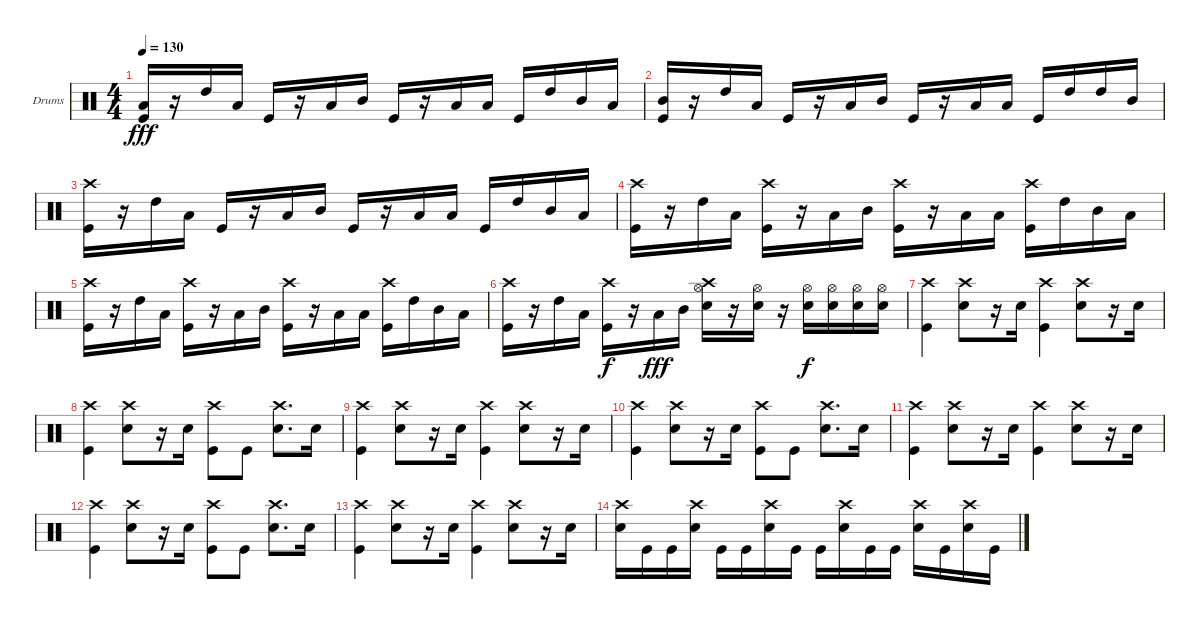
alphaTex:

\bracketExtendMode groupsimilarinstruments
\firstSystemTrackNameOrientation horizontal
\otherSystemsTrackNameOrientation horizontal
\track ("Drumkit" "Drums") {instrument percussion}
\staff {score}
\articulation defaults
\ts (4 4)
\tempo 130
\clef neutral
\ks c
("Low Tom (hit)" "Kick (hit)").16{dy fff} r.16 "High Tom (hit)".16 "Low Tom (hit)".16 "Kick (hit)".16 r.16 "Low Tom (hit)".16 "Mid Tom (hit)".16 "Kick (hit)".16 r.16 "Low Tom (hit)".16 "Low Tom (hit)".16 "Kick (hit)".16 "High Tom (hit)".16 "Mid Tom (hit)".16 "Low Tom (hit)".16 |
("Mid Tom (hit)" "Kick (hit)").16 r.16 "High Tom (hit)".16 "Low Tom (hit)".16 "Kick (hit)".16 r.16 "Low Tom (hit)".16 "Mid Tom (hit)".16 "Kick (hit)".16 r.16 "Low Tom (hit)".16 "Low Tom (hit)".16 "Kick (hit)".16 "High Tom (hit)".16 "High Tom (hit)".16 "Mid Tom (hit)".16 |
("Crash high (hit)" "Kick (hit)").16 r.16 "High Tom (hit)".16 "Low Tom (hit)".16 "Kick (hit)".16 r.16 "Low Tom (hit)".16 "Mid Tom (hit)".16 "Kick (hit)".16 r.16 "Low Tom (hit)".16 "Low Tom (hit)".16 "Kick (hit)".16 "High Tom (hit)".16 "Mid Tom (hit)".16 "Low Tom (hit)".16 |
("Crash high (hit)" "Kick (hit)").16 r.16 "High Tom (hit)".16 "Low Tom (hit)".16 ("Kick (hit)" "Crash high (hit)").16 r.16 "Low Tom (hit)".16 "Mid Tom (hit)".16 ("Kick (hit)" "Crash high (hit)").16 r.16 "Low Tom (hit)".16 "Low Tom (hit)".16 ("Kick (hit)" "Crash high (hit)").16 "High Tom (hit)".16 "Mid Tom (hit)".16 "Low Tom (hit)".16 |
("Crash high (hit)" "Kick (hit)").16 r.16 "High Tom (hit)".16 "Low Tom (hit)".16 ("Kick (hit)" "Crash high (hit)").16 r.16 "Low Tom (hit)".16 "Mid Tom (hit)".16 ("Kick (hit)" "Crash high (hit)").16 r.16 "Low Tom (hit)".16 "Low Tom (hit)".16 ("Kick (hit)" "Crash high (hit)").16 "High Tom (hit)".16 "Mid Tom (hit)".16 "Low Tom (hit)".16 |
("Crash high (hit)" "Kick (hit)").16 r.16 "High Tom (hit)".16 "Low Tom (hit)".16 ("Crash high (hit)" "Kick (hit)").16{dy f} r.16 "Low Tom (hit)".16{dy fff} "Mid Tom (hit)".16 ("Snare (hit) 2" "Hi-Hat (open)" "Crash high (hit)").16 r.16 ("Snare (hit) 2" "Hi-Hat (open)").16 r.16 ("Snare (hit) 2" "Hi-Hat (open)").16{dy f} ("Snare (hit) 2" "Hi-Hat (open)").16 ("Snare (hit) 2" "Hi-Hat (open)").16 ("Snare (hit) 2" "Hi-Hat (open)").16 |
("Kick (hit)" "Crash high (hit)").4 ("Snare (hit) 2" "Crash high (hit)").8 r.16 "Snare (hit) 2".16 ("Kick (hit)" "Crash high (hit)").4 ("Snare (hit) 2" "Crash high (hit)").8 r.16 "Snare (hit) 2".16 |
("Kick (hit)" "Crash high (hit)").4 ("Snare (hit) 2" "Crash high (hit)").8 r.16 "Snare (hit) 2".16 ("Kick (hit)" "Crash high (hit)").8 "Kick (hit)".8 ("Snare (hit) 2" "Crash high (hit)").8{d} "Snare (hit) 2".16 |
("Kick (hit)" "Crash high (hit)").4 ("Snare (hit) 2" "Crash high (hit)").8 r.16 "Snare (hit) 2".16 ("Kick (hit)" "Crash high (hit)").4 ("Snare (hit) 2" "Crash high (hit)").8 r.16 "Snare (hit) 2".16 |
("Kick (hit)" "Crash high (hit)").4 ("Snare (hit) 2" "Crash high (hit)").8 r.16 "Snare (hit) 2".16 ("Kick (hit)" "Crash high (hit)").8 "Kick (hit)".8 ("Snare (hit) 2" "Crash high (hit)").8{d} "Snare (hit) 2".16 |
("Kick (hit)" "Crash high (hit)").4 ("Snare (hit) 2" "Crash high (hit)").8 r.16 "Snare (hit) 2".16 ("Kick (hit)" "Crash high (hit)").4 ("Snare (hit) 2" "Crash high (hit)").8 r.16 "Snare (hit) 2".16 |
("Kick (hit)" "Crash high (hit)").4 ("Snare (hit) 2" "Crash high (hit)").8 r.16 "Snare (hit) 2".16 ("Kick (hit)" "Crash high (hit)").8 "Kick (hit)".8 ("Snare (hit) 2" "Crash high (hit)").8{d} "Snare (hit) 2".16 |
("Kick (hit)" "Crash high (hit)").4 ("Snare (hit) 2" "Crash high (hit)").8 r.16 "Snare (hit) 2".16 ("Kick (hit)" "Crash high (hit)").4 ("Snare (hit) 2" "Crash high (hit)").8 r.16 "Snare (hit) 2".16 |
("Crash high (hit)" "Snare (hit) 2").16 "Kick (hit)".16 "Kick (hit)".16 ("Crash high (hit)" "Snare (hit) 2").16 "Kick (hit)".16 "Kick (hit)".16 ("Crash high (hit)" "Snare (hit) 2").16 "Kick (hit)".16 "Kick (hit)".16 ("Crash high (hit)" "Snare (hit) 2").16 "Kick (hit)".16 "Kick (hit)".16 ("Crash high (hit)" "Snare (hit) 2").16 "Kick (hit)".16 ("Crash high (hit)" "Snare (hit) 2").16 "Kick (hit)".16
